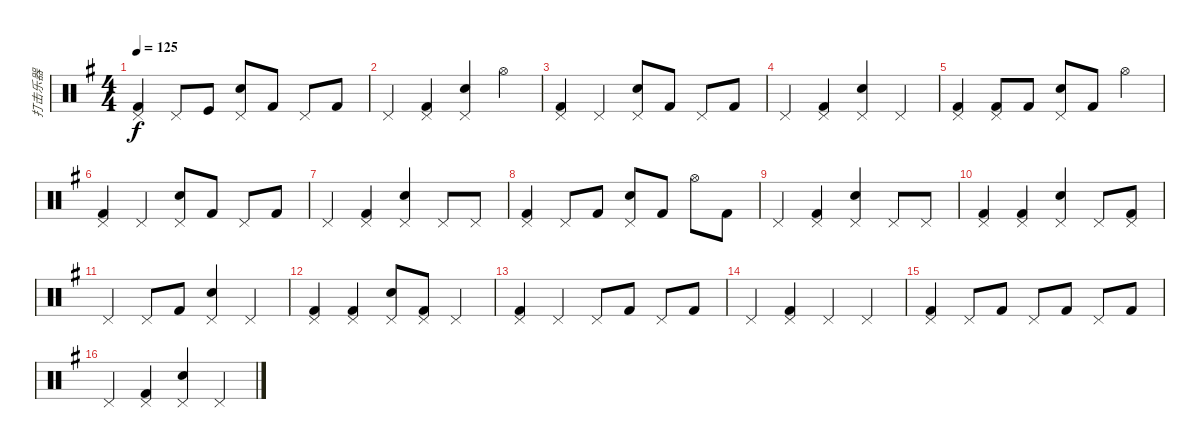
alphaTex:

\track ("打击乐器" "打击乐器") {instrument percussion}
\staff {score}
\articulation defaults
\ts (4 4)
\tempo 125
\clef neutral
\ks g
("Pedal Hi-Hat (hit)" "Kick (hit) 2").4{dy f} "Pedal Hi-Hat (hit)".8 "Kick (hit)".8 ("Pedal Hi-Hat (hit)" "Snare (hit) 2").8 "Kick (hit) 2".8 "Pedal Hi-Hat (hit)".8 "Kick (hit) 2".8 |
"Pedal Hi-Hat (hit)".4 ("Pedal Hi-Hat (hit)" "Kick (hit) 2").4 ("Pedal Hi-Hat (hit)" "Snare (hit) 2").4 "Hi-Hat (open)".4 |
("Pedal Hi-Hat (hit)" "Kick (hit) 2").4 "Pedal Hi-Hat (hit)".4 ("Pedal Hi-Hat (hit)" "Snare (hit) 2").8 "Kick (hit) 2".8 "Pedal Hi-Hat (hit)".8 "Kick (hit) 2".8 |
"Pedal Hi-Hat (hit)".4 ("Pedal Hi-Hat (hit)" "Kick (hit) 2").4 ("Pedal Hi-Hat (hit)" "Snare (hit) 2").4 "Pedal Hi-Hat (hit)".4 |
("Pedal Hi-Hat (hit)" "Kick (hit) 2").4 ("Pedal Hi-Hat (hit)" "Kick (hit) 2").8 "Kick (hit) 2".8 ("Pedal Hi-Hat (hit)" "Snare (hit) 2").8 "Kick (hit) 2".8 "Hi-Hat (open)".4 |
("Pedal Hi-Hat (hit)" "Kick (hit) 2").4 "Pedal Hi-Hat (hit)".4 ("Pedal Hi-Hat (hit)" "Snare (hit) 2").8 "Kick (hit) 2".8 "Pedal Hi-Hat (hit)".8 "Kick (hit) 2".8 |
"Pedal Hi-Hat (hit)".4 ("Pedal Hi-Hat (hit)" "Kick (hit) 2").4 ("Pedal Hi-Hat (hit)" "Snare (hit) 2").4 "Pedal Hi-Hat (hit)".8 "Pedal Hi-Hat (hit)".8 |
("Pedal Hi-Hat (hit)" "Kick (hit) 2").4 "Pedal Hi-Hat (hit)".8 "Kick (hit) 2".8 ("Pedal Hi-Hat (hit)" "Snare (hit) 2").8 "Kick (hit) 2".8 "Hi-Hat (open)".8 "Kick (hit) 2".8 |
"Pedal Hi-Hat (hit)".4 ("Pedal Hi-Hat (hit)" "Kick (hit) 2").4 ("Pedal Hi-Hat (hit)" "Snare (hit) 2").4 "Pedal Hi-Hat (hit)".8 "Pedal Hi-Hat (hit)".8 |
("Pedal Hi-Hat (hit)" "Kick (hit) 2").4 ("Pedal Hi-Hat (hit)" "Kick (hit) 2").4 ("Pedal Hi-Hat (hit)" "Snare (hit) 2").4 "Pedal Hi-Hat (hit)".8 ("Pedal Hi-Hat (hit)" "Kick (hit) 2").8 |
"Pedal Hi-Hat (hit)".4 "Pedal Hi-Hat (hit)".8 "Kick (hit) 2".8 ("Pedal Hi-Hat (hit)" "Snare (hit) 2").4 "Pedal Hi-Hat (hit)".4 |
("Pedal Hi-Hat (hit)" "Kick (hit) 2").4 ("Pedal Hi-Hat (hit)" "Kick (hit) 2").4 ("Pedal Hi-Hat (hit)" "Snare (hit) 2").8 ("Pedal Hi-Hat (hit)" "Kick (hit) 2").8 "Pedal Hi-Hat (hit)".4 |
("Pedal Hi-Hat (hit)" "Kick (hit) 2").4 "Pedal Hi-Hat (hit)".4 "Pedal Hi-Hat (hit)".8 "Kick (hit) 2".8 "Pedal Hi-Hat (hit)".8 "Kick (hit) 2".8 |
"Pedal Hi-Hat (hit)".4 ("Pedal Hi-Hat (hit)" "Kick (hit) 2").4 "Pedal Hi-Hat (hit)".4 "Pedal Hi-Hat (hit)".4 |
("Pedal Hi-Hat (hit)" "Kick (hit) 2").4 "Pedal Hi-Hat (hit)".8 "Kick (hit) 2".8 "Pedal Hi-Hat (hit)".8 "Kick (hit) 2".8 "Pedal Hi-Hat (hit)".8 "Kick (hit) 2".8 |
"Pedal Hi-Hat (hit)".4 ("Pedal Hi-Hat (hit)" "Kick (hit) 2").4 ("Pedal Hi-Hat (hit)" "Snare (hit) 2").4 "Pedal Hi-Hat (hit)".4
